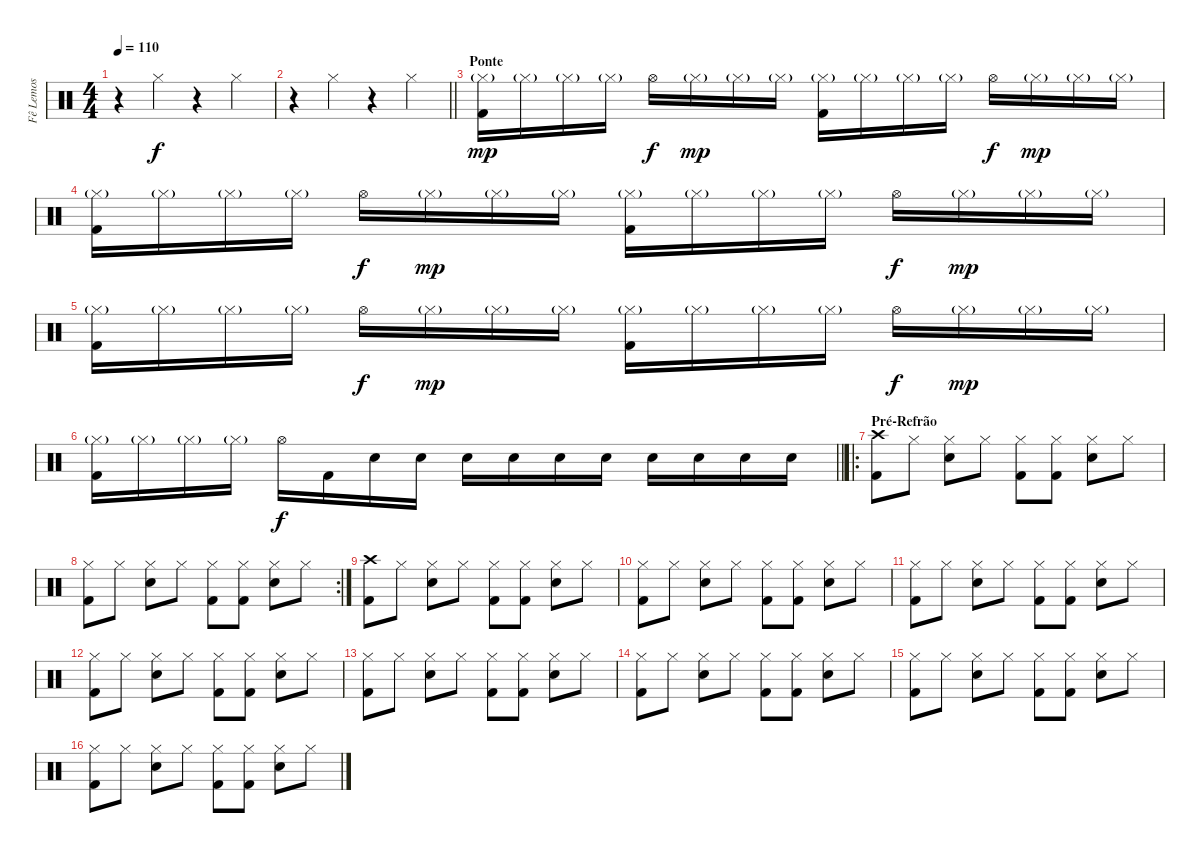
\track ("Fê Lemos" "Fê Lemos") {instrument percussion}
\staff {score}
\articulation defaults
\ts (4 4)
\tempo 110
\clef neutral
\ks c
r.4{dy f} "Hi-Hat (closed)".4 r.4 "Hi-Hat (closed)".4 |
\barLineRight lightlight
r.4 "Hi-Hat (closed)".4 r.4 "Hi-Hat (closed)".4 |
\section ("" "Ponte")
("Hi-Hat (closed)"{g} "Kick (hit) 2").16{dy mp} "Hi-Hat (closed)"{g}.16 "Hi-Hat (closed)"{g}.16 "Hi-Hat (closed)"{g}.16 "Hi-Hat (open)".16{dy f} "Hi-Hat (closed)"{g}.16{dy mp} "Hi-Hat (closed)"{g}.16 "Hi-Hat (closed)"{g}.16 ("Hi-Hat (closed)"{g} "Kick (hit) 2").16 "Hi-Hat (closed)"{g}.16 "Hi-Hat (closed)"{g}.16 "Hi-Hat (closed)"{g}.16 "Hi-Hat (open)".16{dy f} "Hi-Hat (closed)"{g}.16{dy mp} "Hi-Hat (closed)"{g}.16 "Hi-Hat (closed)"{g}.16 |
("Hi-Hat (closed)"{g} "Kick (hit) 2").16 "Hi-Hat (closed)"{g}.16 "Hi-Hat (closed)"{g}.16 "Hi-Hat (closed)"{g}.16 "Hi-Hat (open)".16{dy f} "Hi-Hat (closed)"{g}.16{dy mp} "Hi-Hat (closed)"{g}.16 "Hi-Hat (closed)"{g}.16 ("Hi-Hat (closed)"{g} "Kick (hit) 2").16 "Hi-Hat (closed)"{g}.16 "Hi-Hat (closed)"{g}.16 "Hi-Hat (closed)"{g}.16 "Hi-Hat (open)".16{dy f} "Hi-Hat (closed)"{g}.16{dy mp} "Hi-Hat (closed)"{g}.16 "Hi-Hat (closed)"{g}.16 |
("Hi-Hat (closed)"{g} "Kick (hit) 2").16 "Hi-Hat (closed)"{g}.16 "Hi-Hat (closed)"{g}.16 "Hi-Hat (closed)"{g}.16 "Hi-Hat (open)".16{dy f} "Hi-Hat (closed)"{g}.16{dy mp} "Hi-Hat (closed)"{g}.16 "Hi-Hat (closed)"{g}.16 ("Hi-Hat (closed)"{g} "Kick (hit) 2").16 "Hi-Hat (closed)"{g}.16 "Hi-Hat (closed)"{g}.16 "Hi-Hat (closed)"{g}.16 "Hi-Hat (open)".16{dy f} "Hi-Hat (closed)"{g}.16{dy mp} "Hi-Hat (closed)"{g}.16 "Hi-Hat (closed)"{g}.16 |
\barLineRight lightlight
("Hi-Hat (closed)"{g} "Kick (hit) 2").16 "Hi-Hat (closed)"{g}.16 "Hi-Hat (closed)"{g}.16 "Hi-Hat (closed)"{g}.16 "Hi-Hat (open)".16{dy f} "Kick (hit) 2".16 "Electric Snare (hit)".16 "Electric Snare (hit)".16 "Electric Snare (hit)".16 "Electric Snare (hit)".16 "Electric Snare (hit)".16 "Electric Snare (hit)".16 "Electric Snare (hit)".16 "Electric Snare (hit)".16 "Electric Snare (hit)".16 "Electric Snare (hit)".16 |
\ro
\section ("" "Pré-Refrão")
("Crash high (hit)" "Kick (hit) 2").8 "Hi-Hat (closed)".8 ("Hi-Hat (closed)" "Electric Snare (hit)").8 "Hi-Hat (closed)".8 ("Hi-Hat (closed)" "Kick (hit) 2").8 ("Hi-Hat (closed)" "Kick (hit) 2").8 ("Hi-Hat (closed)" "Electric Snare (hit)").8 "Hi-Hat (closed)".8 |
\rc 2
("Hi-Hat (closed)" "Kick (hit) 2").8 "Hi-Hat (closed)".8 ("Hi-Hat (closed)" "Electric Snare (hit)").8 "Hi-Hat (closed)".8 ("Hi-Hat (closed)" "Kick (hit) 2").8 ("Hi-Hat (closed)" "Kick (hit) 2").8 ("Hi-Hat (closed)" "Electric Snare (hit)").8 "Hi-Hat (closed)".8 |
("Crash high (hit)" "Kick (hit) 2").8 "Hi-Hat (closed)".8 ("Hi-Hat (closed)" "Electric Snare (hit)").8 "Hi-Hat (closed)".8 ("Hi-Hat (closed)" "Kick (hit) 2").8 ("Hi-Hat (closed)" "Kick (hit) 2").8 ("Hi-Hat (closed)" "Electric Snare (hit)").8 "Hi-Hat (closed)".8 |
("Hi-Hat (closed)" "Kick (hit) 2").8 "Hi-Hat (closed)".8 ("Hi-Hat (closed)" "Electric Snare (hit)").8 "Hi-Hat (closed)".8 ("Hi-Hat (closed)" "Kick (hit) 2").8 ("Hi-Hat (closed)" "Kick (hit) 2").8 ("Hi-Hat (closed)" "Electric Snare (hit)").8 "Hi-Hat (closed)".8 |
("Hi-Hat (closed)" "Kick (hit) 2").8 "Hi-Hat (closed)".8 ("Hi-Hat (closed)" "Electric Snare (hit)").8 "Hi-Hat (closed)".8 ("Hi-Hat (closed)" "Kick (hit) 2").8 ("Hi-Hat (closed)" "Kick (hit) 2").8 ("Hi-Hat (closed)" "Electric Snare (hit)").8 "Hi-Hat (closed)".8 |
("Hi-Hat (closed)" "Kick (hit) 2").8 "Hi-Hat (closed)".8 ("Hi-Hat (closed)" "Electric Snare (hit)").8 "Hi-Hat (closed)".8 ("Hi-Hat (closed)" "Kick (hit) 2").8 ("Hi-Hat (closed)" "Kick (hit) 2").8 ("Hi-Hat (closed)" "Electric Snare (hit)").8 "Hi-Hat (closed)".8 |
("Hi-Hat (closed)" "Kick (hit) 2").8 "Hi-Hat (closed)".8 ("Hi-Hat (closed)" "Electric Snare (hit)").8 "Hi-Hat (closed)".8 ("Hi-Hat (closed)" "Kick (hit) 2").8 ("Hi-Hat (closed)" "Kick (hit) 2").8 ("Hi-Hat (closed)" "Electric Snare (hit)").8 "Hi-Hat (closed)".8 |
("Hi-Hat (closed)" "Kick (hit) 2").8 "Hi-Hat (closed)".8 ("Hi-Hat (closed)" "Electric Snare (hit)").8 "Hi-Hat (closed)".8 ("Hi-Hat (closed)" "Kick (hit) 2").8 ("Hi-Hat (closed)" "Kick (hit) 2").8 ("Hi-Hat (closed)" "Electric Snare (hit)").8 "Hi-Hat (closed)".8 |
("Hi-Hat (closed)" "Kick (hit) 2").8 "Hi-Hat (closed)".8 ("Hi-Hat (closed)" "Electric Snare (hit)").8 "Hi-Hat (closed)".8 ("Hi-Hat (closed)" "Kick (hit) 2").8 ("Hi-Hat (closed)" "Kick (hit) 2").8 ("Hi-Hat (closed)" "Electric Snare (hit)").8 "Hi-Hat (closed)".8 |
("Hi-Hat (closed)" "Kick (hit) 2").8 "Hi-Hat (closed)".8 ("Hi-Hat (closed)" "Electric Snare (hit)").8 "Hi-Hat (closed)".8 ("Hi-Hat (closed)" "Kick (hit) 2").8 ("Hi-Hat (closed)" "Kick (hit) 2").8 ("Hi-Hat (closed)" "Electric Snare (hit)").8 "Hi-Hat (closed)".8
